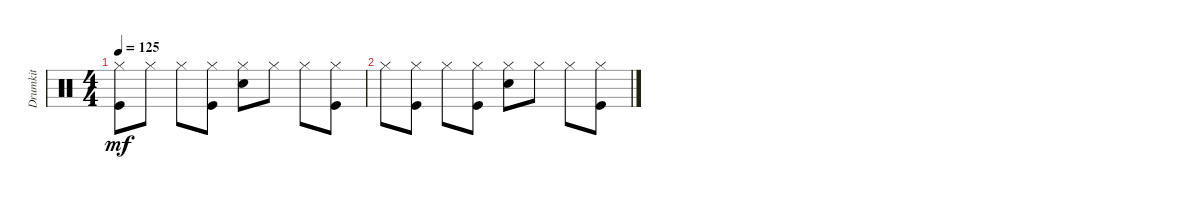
\track ("Drumkit" "Drumkit") {instrument percussion}
\staff {score}
\articulation defaults
\ts (4 4)
\tempo 125
\clef neutral
\ks c
("Kick (hit)" "Hi-Hat (closed)").8{dy mf} "Hi-Hat (closed)".8 "Hi-Hat (closed)".8 ("Kick (hit)" "Hi-Hat (closed)").8 ("Snare (hit) 2" "Hi-Hat (closed)").8 "Hi-Hat (closed)".8 "Hi-Hat (closed)".8 ("Kick (hit)" "Hi-Hat (closed)").8 |
"Hi-Hat (closed)".8 ("Kick (hit)" "Hi-Hat (closed)").8 "Hi-Hat (closed)".8 ("Kick (hit)" "Hi-Hat (closed)").8 ("Snare (hit) 2" "Hi-Hat (closed)").8 "Hi-Hat (closed)".8 "Hi-Hat (closed)".8 ("Hi-Hat (closed)" "Kick (hit)").8
